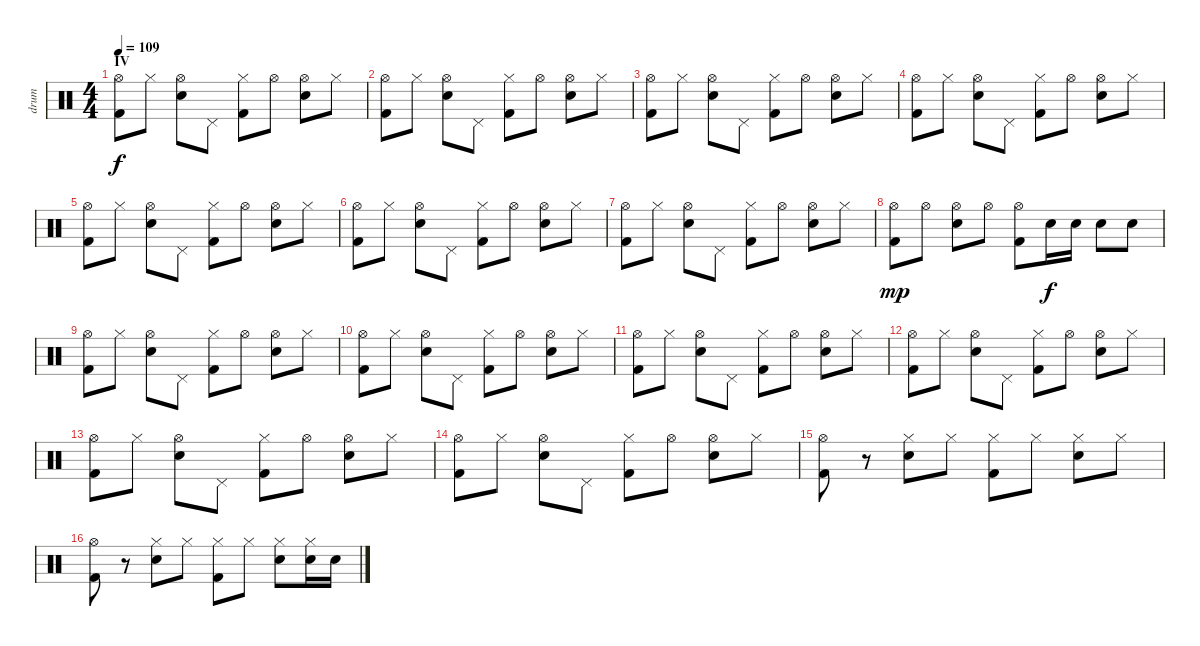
\track ("drum" "drum") {instrument percussion}
\staff {score}
\articulation defaults
\ts (4 4)
\section ("" "IV")
\tempo 109
\clef neutral
\ks c
("Hi-Hat (open)" "Kick (hit) 2").8{dy f} "Hi-Hat (closed)".8 ("Hi-Hat (open)" "Electric Snare (hit)").8 "Pedal Hi-Hat (hit)".8 ("Hi-Hat (closed)" "Kick (hit) 2").8 "Hi-Hat (open)".8 ("Hi-Hat (open)" "Electric Snare (hit)").8 "Hi-Hat (closed)".8 |
("Hi-Hat (open)" "Kick (hit) 2").8 "Hi-Hat (closed)".8 ("Hi-Hat (open)" "Electric Snare (hit)").8 "Pedal Hi-Hat (hit)".8 ("Hi-Hat (closed)" "Kick (hit) 2").8 "Hi-Hat (open)".8 ("Hi-Hat (open)" "Electric Snare (hit)").8 "Hi-Hat (closed)".8 |
("Hi-Hat (open)" "Kick (hit) 2").8 "Hi-Hat (closed)".8 ("Hi-Hat (open)" "Electric Snare (hit)").8 "Pedal Hi-Hat (hit)".8 ("Hi-Hat (closed)" "Kick (hit) 2").8 "Hi-Hat (open)".8 ("Hi-Hat (open)" "Electric Snare (hit)").8 "Hi-Hat (closed)".8 |
("Hi-Hat (open)" "Kick (hit) 2").8 "Hi-Hat (closed)".8 ("Hi-Hat (open)" "Electric Snare (hit)").8 "Pedal Hi-Hat (hit)".8 ("Hi-Hat (closed)" "Kick (hit) 2").8 "Hi-Hat (open)".8 ("Hi-Hat (open)" "Electric Snare (hit)").8 "Hi-Hat (closed)".8 |
("Hi-Hat (open)" "Kick (hit) 2").8 "Hi-Hat (closed)".8 ("Hi-Hat (open)" "Electric Snare (hit)").8 "Pedal Hi-Hat (hit)".8 ("Hi-Hat (closed)" "Kick (hit) 2").8 "Hi-Hat (open)".8 ("Hi-Hat (open)" "Electric Snare (hit)").8 "Hi-Hat (closed)".8 |
("Hi-Hat (open)" "Kick (hit) 2").8 "Hi-Hat (closed)".8 ("Hi-Hat (open)" "Electric Snare (hit)").8 "Pedal Hi-Hat (hit)".8 ("Hi-Hat (closed)" "Kick (hit) 2").8 "Hi-Hat (open)".8 ("Hi-Hat (open)" "Electric Snare (hit)").8 "Hi-Hat (closed)".8 |
("Hi-Hat (open)" "Kick (hit) 2").8 "Hi-Hat (closed)".8 ("Hi-Hat (open)" "Electric Snare (hit)").8 "Pedal Hi-Hat (hit)".8 ("Hi-Hat (closed)" "Kick (hit) 2").8 "Hi-Hat (open)".8 ("Hi-Hat (open)" "Electric Snare (hit)").8 "Hi-Hat (closed)".8 |
("Hi-Hat (open)" "Kick (hit) 2").8{dy mp} "Hi-Hat (open)".8 ("Hi-Hat (open)" "Electric Snare (hit)").8 "Hi-Hat (open)".8 ("Hi-Hat (open)" "Kick (hit) 2").8 "Electric Snare (hit)".16{dy f} "Electric Snare (hit)".16 "Electric Snare (hit)".8 "Electric Snare (hit)".8 |
("Hi-Hat (open)" "Kick (hit) 2").8 "Hi-Hat (closed)".8 ("Hi-Hat (open)" "Electric Snare (hit)").8 "Pedal Hi-Hat (hit)".8 ("Hi-Hat (closed)" "Kick (hit) 2").8 "Hi-Hat (open)".8 ("Hi-Hat (open)" "Electric Snare (hit)").8 "Hi-Hat (closed)".8 |
("Hi-Hat (open)" "Kick (hit) 2").8 "Hi-Hat (closed)".8 ("Hi-Hat (open)" "Electric Snare (hit)").8 "Pedal Hi-Hat (hit)".8 ("Hi-Hat (closed)" "Kick (hit) 2").8 "Hi-Hat (open)".8 ("Hi-Hat (open)" "Electric Snare (hit)").8 "Hi-Hat (closed)".8 |
("Hi-Hat (open)" "Kick (hit) 2").8 "Hi-Hat (closed)".8 ("Hi-Hat (open)" "Electric Snare (hit)").8 "Pedal Hi-Hat (hit)".8 ("Hi-Hat (closed)" "Kick (hit) 2").8 "Hi-Hat (open)".8 ("Hi-Hat (open)" "Electric Snare (hit)").8 "Hi-Hat (closed)".8 |
("Hi-Hat (open)" "Kick (hit) 2").8 "Hi-Hat (closed)".8 ("Hi-Hat (open)" "Electric Snare (hit)").8 "Pedal Hi-Hat (hit)".8 ("Hi-Hat (closed)" "Kick (hit) 2").8 "Hi-Hat (open)".8 ("Hi-Hat (open)" "Electric Snare (hit)").8 "Hi-Hat (closed)".8 |
("Hi-Hat (open)" "Kick (hit) 2").8 "Hi-Hat (closed)".8 ("Hi-Hat (open)" "Electric Snare (hit)").8 "Pedal Hi-Hat (hit)".8 ("Hi-Hat (closed)" "Kick (hit) 2").8 "Hi-Hat (open)".8 ("Hi-Hat (open)" "Electric Snare (hit)").8 "Hi-Hat (closed)".8 |
("Hi-Hat (open)" "Kick (hit) 2").8 "Hi-Hat (closed)".8 ("Hi-Hat (open)" "Electric Snare (hit)").8 "Pedal Hi-Hat (hit)".8 ("Hi-Hat (closed)" "Kick (hit) 2").8 "Hi-Hat (open)".8 ("Hi-Hat (open)" "Electric Snare (hit)").8 "Hi-Hat (closed)".8 |
("Hi-Hat (open)" "Kick (hit) 2").8 r.8 ("Hi-Hat (closed)" "Electric Snare (hit)").8 "Hi-Hat (closed)".8 ("Hi-Hat (closed)" "Kick (hit) 2").8 "Hi-Hat (closed)".8 ("Hi-Hat (closed)" "Electric Snare (hit)").8 "Hi-Hat (closed)".8 |
("Hi-Hat (open)" "Kick (hit) 2").8 r.8 ("Hi-Hat (closed)" "Electric Snare (hit)").8 "Hi-Hat (closed)".8 ("Hi-Hat (closed)" "Kick (hit) 2").8 "Hi-Hat (closed)".8 ("Hi-Hat (closed)" "Electric Snare (hit)").8 ("Hi-Hat (closed)" "Electric Snare (hit)").16 "Electric Snare (hit)".16
